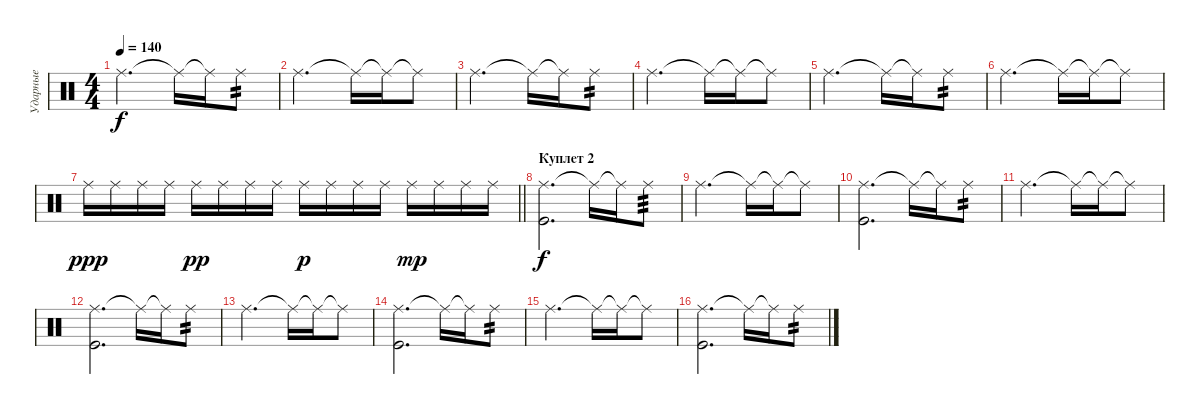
\track ("Ударные" "Ударные") {instrument percussion}
\staff {score}
\articulation defaults
\ts (4 4)
\tempo 140
\clef neutral
\ks c "Ride (middle)".2{d dy f} "Ride (middle)"{t}.16 "Ride (middle)"{t}.16 "Ride (middle)".8{tp 2}
|
"Ride (middle)".2{d} "Ride (middle)"{t}.16 "Ride (middle)"{t}.16 "Ride (middle)"{t}.8 |
"Ride (middle)".2{d} "Ride (middle)"{t}.16 "Ride (middle)"{t}.16 "Ride (middle)".8{tp 2} |
"Ride (middle)".2{d} "Ride (middle)"{t}.16 "Ride (middle)"{t}.16 "Ride (middle)"{t}.8 |
"Ride (middle)".2{d} "Ride (middle)"{t}.16 "Ride (middle)"{t}.16 "Ride (middle)".8{tp 2} |
"Ride (middle)".2{d} "Ride (middle)"{t}.16 "Ride (middle)"{t}.16 "Ride (middle)"{t}.8 |
\barLineRight lightlight "Ride (middle)".16{dy ppp} "Ride (middle)".16 "Ride (middle)".16 "Ride (middle)".16 "Ride (middle)".16{dy pp} "Ride (middle)".16 "Ride (middle)".16 "Ride (middle)".16 "Ride (middle)".16{dy p} "Ride (middle)".16 "Ride (middle)".16 "Ride (middle)".16 "Ride (middle)".16{dy mp} "Ride (middle)".16 "Ride (middle)".16 "Ride (middle)".16
|
\section ("" "Куплет 2")
("Ride (middle)" "Kick (hit)").2{d dy f} "Ride (middle)"{t}.16 "Ride (middle)"{t}.16 "Ride (middle)".8{tp 3} |
"Ride (middle)".2{d} "Ride (middle)"{t}.16 "Ride (middle)"{t}.16 "Ride (middle)"{t}.8 |
("Ride (middle)" "Kick (hit)").2{d} "Ride (middle)"{t}.16 "Ride (middle)"{t}.16 "Ride (middle)".8{tp 2} |
"Ride (middle)".2{d} "Ride (middle)"{t}.16 "Ride (middle)"{t}.16 "Ride (middle)"{t}.8 |
("Ride (middle)" "Kick (hit)").2{d} "Ride (middle)"{t}.16 "Ride (middle)"{t}.16 "Ride (middle)".8{tp 2} |
"Ride (middle)".2{d} "Ride (middle)"{t}.16 "Ride (middle)"{t}.16 "Ride (middle)"{t}.8 |
("Ride (middle)" "Kick (hit)").2{d} "Ride (middle)"{t}.16 "Ride (middle)"{t}.16 "Ride (middle)".8{tp 2} |
"Ride (middle)".2{d} "Ride (middle)"{t}.16 "Ride (middle)"{t}.16 "Ride (middle)"{t}.8 |
("Ride (middle)" "Kick (hit)").2{d} "Ride (middle)"{t}.16 "Ride (middle)"{t}.16 "Ride (middle)".8{tp 2}
